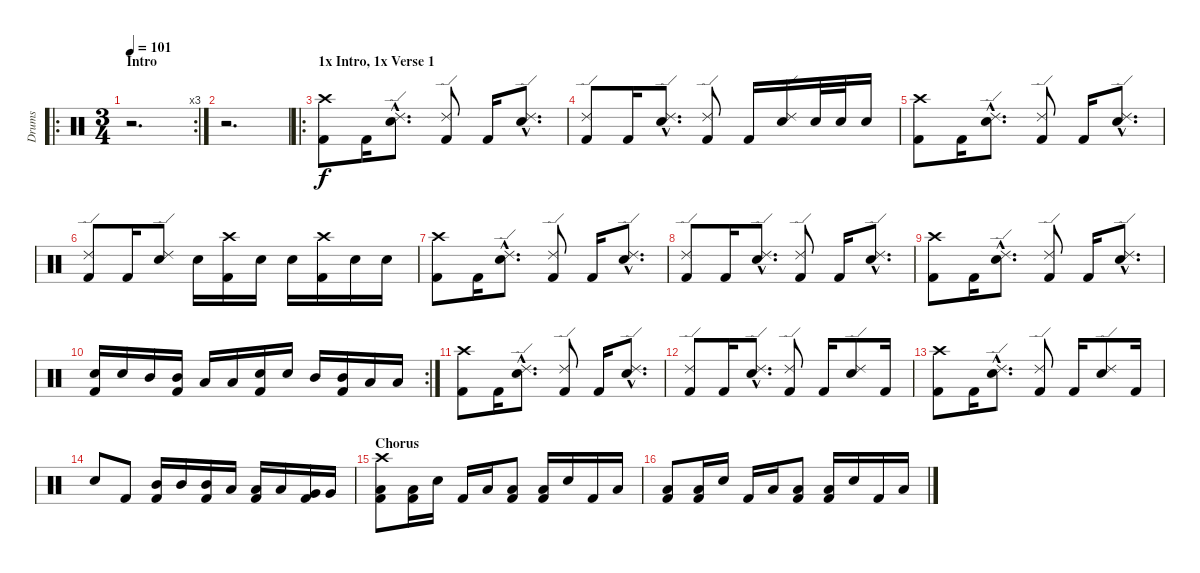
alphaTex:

\track ("Drums" "Drums") {instrument percussion}
\staff {score}
\articulation defaults
\ro
\rc 3
\ts (3 4)
\section ("" "Intro")
\tempo 101
\clef neutral
\ks c
r.2{d dy f} |
r.2{d} |
\ro
\section ("" "1x Intro, 1x Verse 1")
("Crash high (hit)" "Kick (hit) 2").8 "Kick (hit) 2".16 ("Electric Snare (hit)"{hac} "Ride (edge) 2"{hac}).8{d} ("Ride (edge) 2" "Kick (hit) 2").8 "Kick (hit) 2".16 ("Electric Snare (hit)"{hac} "Ride (edge) 2"{hac}).8{d} |
("Ride (edge) 2" "Kick (hit) 2").8 "Kick (hit) 2".16 ("Electric Snare (hit)"{hac} "Ride (edge) 2"{hac}).8{d} ("Ride (edge) 2" "Kick (hit) 2").8 "Kick (hit) 2".16 ("Electric Snare (hit)" "Ride (edge) 2").16 "Electric Snare (hit)".32 "Electric Snare (hit)".32 "Electric Snare (hit)".16 |
("Crash high (hit)" "Kick (hit) 2").8 "Kick (hit) 2".16 ("Electric Snare (hit)"{hac} "Ride (edge) 2"{hac}).8{d} ("Ride (edge) 2" "Kick (hit) 2").8 "Kick (hit) 2".16 ("Electric Snare (hit)"{hac} "Ride (edge) 2"{hac}).8{d} |
("Ride (edge) 2" "Kick (hit) 2").8 "Kick (hit) 2".16 ("Electric Snare (hit)" "Ride (edge) 2").8 "Electric Snare (hit)".16 ("Crash high (hit)" "Kick (hit) 2").16 "Electric Snare (hit)".16 "Electric Snare (hit)".16 ("Crash high (hit)" "Kick (hit) 2").16 "Electric Snare (hit)".16 "Electric Snare (hit)".16 |
("Crash high (hit)" "Kick (hit) 2").8 "Kick (hit) 2".16 ("Electric Snare (hit)"{hac} "Ride (edge) 2"{hac}).8{d} ("Ride (edge) 2" "Kick (hit) 2").8 "Kick (hit) 2".16 ("Electric Snare (hit)"{hac} "Ride (edge) 2"{hac}).8{d} |
("Ride (edge) 2" "Kick (hit) 2").8 "Kick (hit) 2".16 ("Electric Snare (hit)"{hac} "Ride (edge) 2"{hac}).8{d} ("Ride (edge) 2" "Kick (hit) 2").8 "Kick (hit) 2".16 ("Electric Snare (hit)"{hac} "Ride (edge) 2"{hac}).8{d} |
("Crash high (hit)" "Kick (hit) 2").8 "Kick (hit) 2".16 ("Electric Snare (hit)"{hac} "Ride (edge) 2"{hac}).8{d} ("Ride (edge) 2" "Kick (hit) 2").8 "Kick (hit) 2".16 ("Electric Snare (hit)"{hac} "Ride (edge) 2"{hac}).8{d} |
\rc 2
("Electric Snare (hit)" "Kick (hit) 2").16 "Electric Snare (hit)".16 "Mid Tom (hit)".16 ("Mid Tom (hit)" "Kick (hit) 2").16 "Low Tom (hit)".16 "Low Tom (hit)".16 ("Electric Snare (hit)" "Kick (hit) 2").16 "Electric Snare (hit)".16 "Mid Tom (hit)".16 ("Mid Tom (hit)" "Kick (hit) 2").16 "Low Tom (hit)".16 "Low Tom (hit)".16 |
("Crash high (hit)" "Kick (hit) 2").8 "Kick (hit) 2".16 ("Electric Snare (hit)"{hac} "Ride (edge) 2"{hac}).8{d} ("Ride (edge) 2" "Kick (hit) 2").8 "Kick (hit) 2".16 ("Electric Snare (hit)"{hac} "Ride (edge) 2"{hac}).8{d} |
("Ride (edge) 2" "Kick (hit) 2").8 "Kick (hit) 2".16 ("Electric Snare (hit)"{hac} "Ride (edge) 2"{hac}).8{d} ("Ride (edge) 2" "Kick (hit) 2").8 "Kick (hit) 2".16 ("Electric Snare (hit)" "Ride (edge) 2").8 "Kick (hit) 2".16 |
("Crash high (hit)" "Kick (hit) 2").8 "Kick (hit) 2".16 ("Electric Snare (hit)"{hac} "Ride (edge) 2"{hac}).8{d} ("Ride (edge) 2" "Kick (hit) 2").8 "Kick (hit) 2".16 ("Electric Snare (hit)" "Ride (edge) 2").8 "Kick (hit) 2".16 |
"Electric Snare (hit)".8 "Kick (hit) 2".8 ("Mid Tom (hit)" "Kick (hit) 2").16 "Mid Tom (hit)".16 ("Mid Tom (hit)" "Kick (hit) 2").16 "Low Tom (hit)".16 ("Low Tom (hit)" "Kick (hit) 2").16 "Low Tom (hit)".16 ("Very Low Tom (hit)" "Kick (hit) 2").16 "Very Low Tom (hit)".16 |
\section ("" "Chorus")
("Crash high (hit)" "Low Tom (hit)" "Kick (hit) 2").8 ("Low Tom (hit)" "Kick (hit) 2").16 "Electric Snare (hit)".16 "Kick (hit) 2".16 "Low Tom (hit)".16 ("Low Tom (hit)" "Kick (hit) 2").8 ("Low Tom (hit)" "Kick (hit) 2").16 "Electric Snare (hit)".16 "Kick (hit) 2".16 "Low Tom (hit)".16 |
("Low Tom (hit)" "Kick (hit) 2").8 ("Low Tom (hit)" "Kick (hit) 2").16 "Electric Snare (hit)".16 "Kick (hit) 2".16 "Low Tom (hit)".16 ("Low Tom (hit)" "Kick (hit) 2").8 ("Low Tom (hit)" "Kick (hit) 2").16 "Electric Snare (hit)".16 "Kick (hit) 2".16 "Low Tom (hit)".16
